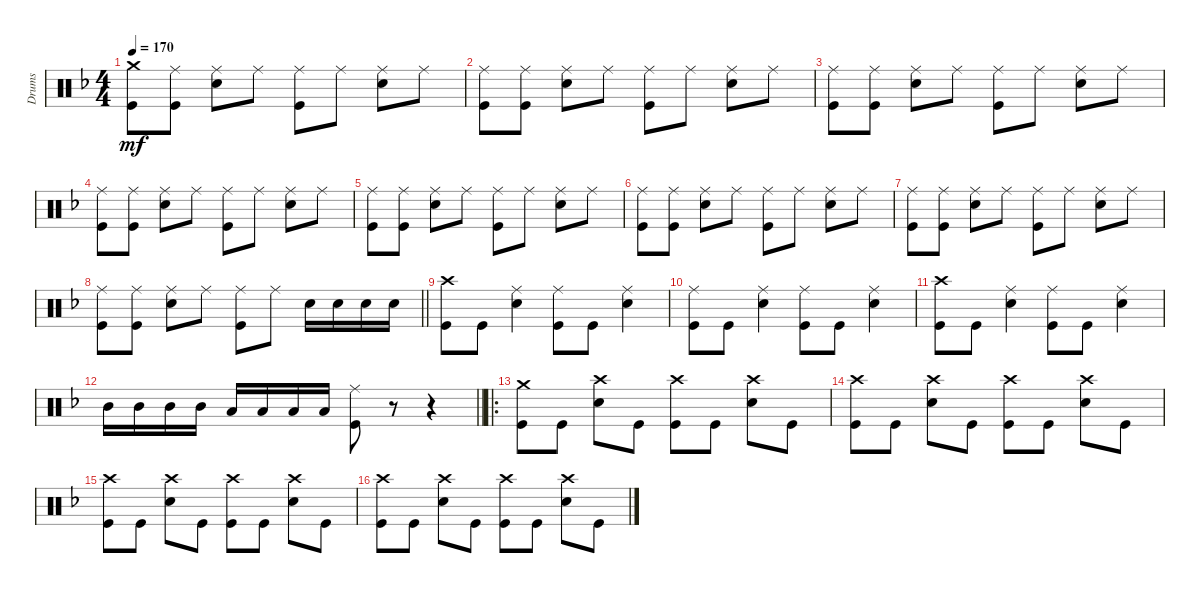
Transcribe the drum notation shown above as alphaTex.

\track ("Drums" "Drums") {instrument percussion}
\staff {score}
\articulation defaults
\ts (4 4)
\tempo 170
\clef neutral
\ks f
("Kick (hit)" "Crash medium (hit)").8{dy mf} ("Kick (hit)" "Ride (middle)").8 ("Snare (hit) 2" "Ride (middle)").8 "Ride (middle)".8 ("Kick (hit)" "Ride (middle)").8 "Ride (middle)".8 ("Snare (hit) 2" "Ride (middle)").8 "Ride (middle)".8 |
("Kick (hit)" "Ride (middle)").8 ("Kick (hit)" "Ride (middle)").8 ("Snare (hit) 2" "Ride (middle)").8 "Ride (middle)".8 ("Kick (hit)" "Ride (middle)").8 "Ride (middle)".8 ("Snare (hit) 2" "Ride (middle)").8 "Ride (middle)".8 |
("Kick (hit)" "Ride (middle)").8 ("Kick (hit)" "Ride (middle)").8 ("Snare (hit) 2" "Ride (middle)").8 "Ride (middle)".8 ("Kick (hit)" "Ride (middle)").8 "Ride (middle)".8 ("Snare (hit) 2" "Ride (middle)").8 "Ride (middle)".8 |
("Kick (hit)" "Ride (middle)").8 ("Kick (hit)" "Ride (middle)").8 ("Snare (hit) 2" "Ride (middle)").8 "Ride (middle)".8 ("Kick (hit)" "Ride (middle)").8 "Ride (middle)".8 ("Snare (hit) 2" "Ride (middle)").8 "Ride (middle)".8 |
("Kick (hit)" "Ride (middle)").8 ("Kick (hit)" "Ride (middle)").8 ("Snare (hit) 2" "Ride (middle)").8 "Ride (middle)".8 ("Kick (hit)" "Ride (middle)").8 "Ride (middle)".8 ("Snare (hit) 2" "Ride (middle)").8 "Ride (middle)".8 |
("Kick (hit)" "Ride (middle)").8 ("Kick (hit)" "Ride (middle)").8 ("Snare (hit) 2" "Ride (middle)").8 "Ride (middle)".8 ("Kick (hit)" "Ride (middle)").8 "Ride (middle)".8 ("Snare (hit) 2" "Ride (middle)").8 "Ride (middle)".8 |
("Kick (hit)" "Ride (middle)").8 ("Kick (hit)" "Ride (middle)").8 ("Snare (hit) 2" "Ride (middle)").8 "Ride (middle)".8 ("Kick (hit)" "Ride (middle)").8 "Ride (middle)".8 ("Snare (hit) 2" "Ride (middle)").8 "Ride (middle)".8 |
\barLineRight lightlight
("Kick (hit)" "Ride (middle)").8 ("Kick (hit)" "Ride (middle)").8 ("Snare (hit) 2" "Ride (middle)").8 "Ride (middle)".8 ("Kick (hit)" "Ride (middle)").8 "Ride (middle)".8 "Snare (hit) 2".16 "Snare (hit) 2".16 "Snare (hit) 2".16 "Snare (hit) 2".16 |
("Kick (hit)" "Crash high (hit)").8 "Kick (hit)".8 ("Snare (hit) 2" "Ride (middle)").4 ("Kick (hit)" "Ride (middle)").8 "Kick (hit)".8 ("Snare (hit) 2" "Ride (middle)").4 |
("Kick (hit)" "Ride (middle)").8 "Kick (hit)".8 ("Snare (hit) 2" "Ride (middle)").4 ("Kick (hit)" "Ride (middle)").8 "Kick (hit)".8 ("Snare (hit) 2" "Ride (middle)").4 |
("Kick (hit)" "Crash high (hit)").8 "Kick (hit)".8 ("Snare (hit) 2" "Ride (middle)").4 ("Kick (hit)" "Ride (middle)").8 "Kick (hit)".8 ("Snare (hit) 2" "Ride (middle)").4 |
\barLineRight lightlight "Mid Tom (hit)".16 "Mid Tom (hit)".16 "Mid Tom (hit)".16 "Mid Tom (hit)".16 "Low Tom (hit)".16 "Low Tom (hit)".16 "Low Tom (hit)".16 "Low Tom (hit)".16
("Kick (hit)" "Ride (middle)").8 r.8 r.4 |
\ro
("Kick (hit)" "Crash medium (hit)").8 "Kick (hit)".8 ("Snare (hit) 2" "Crash high (hit)").8 "Kick (hit)".8 ("Kick (hit)" "Crash high (hit)").8 "Kick (hit)".8 ("Snare (hit) 2" "Crash high (hit)").8 "Kick (hit)".8 |
("Kick (hit)" "Crash high (hit)").8 "Kick (hit)".8 ("Snare (hit) 2" "Crash high (hit)").8 "Kick (hit)".8 ("Kick (hit)" "Crash high (hit)").8 "Kick (hit)".8 ("Snare (hit) 2" "Crash high (hit)").8 "Kick (hit)".8 |
("Kick (hit)" "Crash high (hit)").8 "Kick (hit)".8 ("Snare (hit) 2" "Crash high (hit)").8 "Kick (hit)".8 ("Kick (hit)" "Crash high (hit)").8 "Kick (hit)".8 ("Snare (hit) 2" "Crash high (hit)").8 "Kick (hit)".8 |
("Kick (hit)" "Crash high (hit)").8 "Kick (hit)".8 ("Snare (hit) 2" "Crash high (hit)").8 "Kick (hit)".8 ("Kick (hit)" "Crash high (hit)").8 "Kick (hit)".8 ("Snare (hit) 2" "Crash high (hit)").8 "Kick (hit)".8
